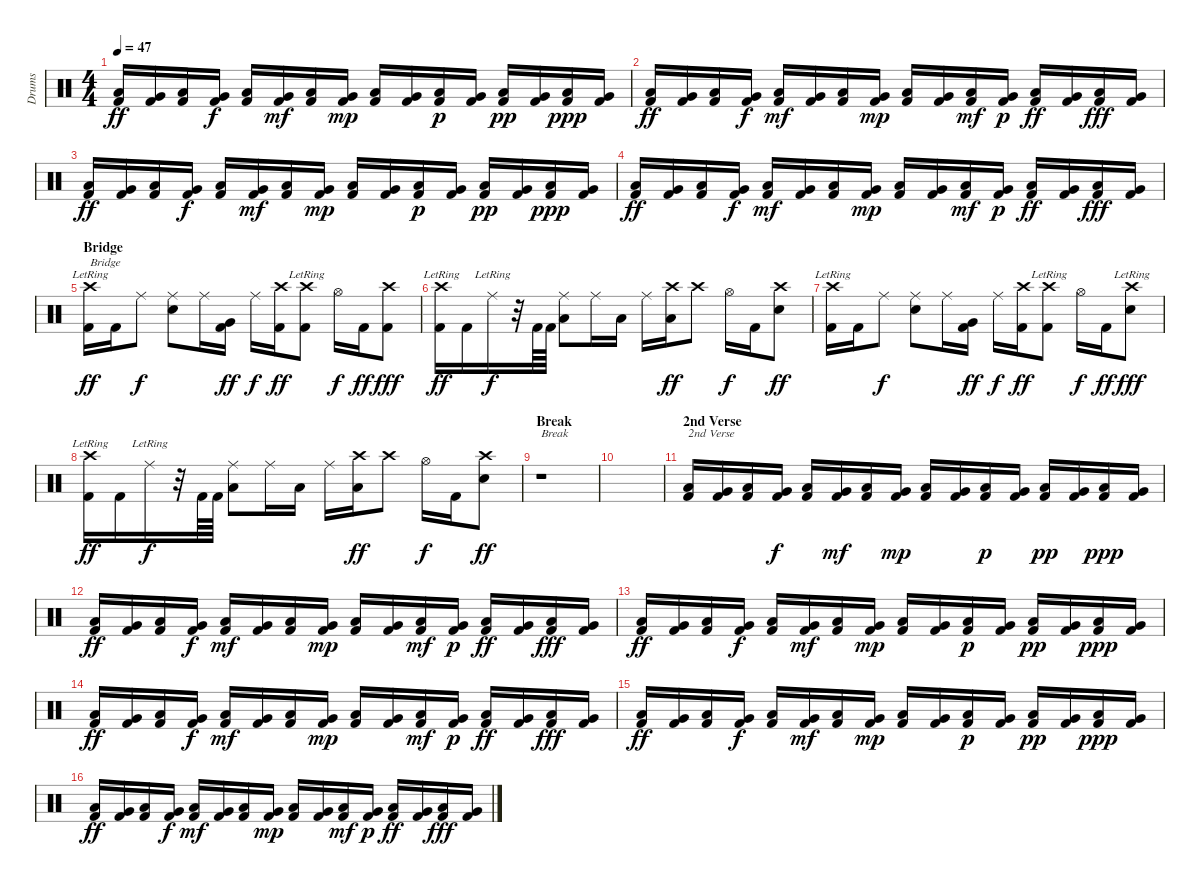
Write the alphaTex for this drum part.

\track ("Drums" "Drums") {instrument percussion}
\staff {score}
\articulation defaults
\ts (4 4)
\tempo 47
\clef neutral
\ks c
("Low Floor Tom (hit)" "Kick (hit) 2").16{dy ff} ("Very Low Tom (hit)" "Kick (hit) 2").16 ("Low Floor Tom (hit)" "Kick (hit) 2").16 ("Very Low Tom (hit)" "Kick (hit) 2").16{dy f} ("Low Floor Tom (hit)" "Kick (hit) 2").16 ("Very Low Tom (hit)" "Kick (hit) 2").16{dy mf} ("Low Floor Tom (hit)" "Kick (hit) 2").16 ("Very Low Tom (hit)" "Kick (hit) 2").16{dy mp} ("Low Floor Tom (hit)" "Kick (hit) 2").16 ("Very Low Tom (hit)" "Kick (hit) 2").16 ("Low Floor Tom (hit)" "Kick (hit) 2").16{dy p} ("Very Low Tom (hit)" "Kick (hit) 2").16 ("Low Floor Tom (hit)" "Kick (hit) 2").16{dy pp} ("Very Low Tom (hit)" "Kick (hit) 2").16 ("Low Floor Tom (hit)" "Kick (hit) 2").16{dy ppp} ("Very Low Tom (hit)" "Kick (hit) 2").16 |
("Low Floor Tom (hit)" "Kick (hit) 2").16{dy ff} ("Very Low Tom (hit)" "Kick (hit) 2").16 ("Low Floor Tom (hit)" "Kick (hit) 2").16 ("Very Low Tom (hit)" "Kick (hit) 2").16{dy f} ("Low Floor Tom (hit)" "Kick (hit) 2").16{dy mf} ("Very Low Tom (hit)" "Kick (hit) 2").16 ("Low Floor Tom (hit)" "Kick (hit) 2").16 ("Very Low Tom (hit)" "Kick (hit) 2").16{dy mp} ("Low Floor Tom (hit)" "Kick (hit) 2").16 ("Very Low Tom (hit)" "Kick (hit) 2").16 ("Low Floor Tom (hit)" "Kick (hit) 2").16{dy mf} ("Very Low Tom (hit)" "Kick (hit) 2").16{dy p} ("Low Floor Tom (hit)" "Kick (hit) 2").16{dy ff} ("Very Low Tom (hit)" "Kick (hit) 2").16 ("Low Floor Tom (hit)" "Kick (hit) 2").16{dy fff} ("Very Low Tom (hit)" "Kick (hit) 2").16 |
("Low Floor Tom (hit)" "Kick (hit) 2").16{dy ff} ("Very Low Tom (hit)" "Kick (hit) 2").16 ("Low Floor Tom (hit)" "Kick (hit) 2").16 ("Very Low Tom (hit)" "Kick (hit) 2").16{dy f} ("Low Floor Tom (hit)" "Kick (hit) 2").16 ("Very Low Tom (hit)" "Kick (hit) 2").16{dy mf} ("Low Floor Tom (hit)" "Kick (hit) 2").16 ("Very Low Tom (hit)" "Kick (hit) 2").16{dy mp} ("Low Floor Tom (hit)" "Kick (hit) 2").16 ("Very Low Tom (hit)" "Kick (hit) 2").16 ("Low Floor Tom (hit)" "Kick (hit) 2").16{dy p} ("Very Low Tom (hit)" "Kick (hit) 2").16 ("Low Floor Tom (hit)" "Kick (hit) 2").16{dy pp} ("Very Low Tom (hit)" "Kick (hit) 2").16 ("Low Floor Tom (hit)" "Kick (hit) 2").16{dy ppp} ("Very Low Tom (hit)" "Kick (hit) 2").16 |
("Low Floor Tom (hit)" "Kick (hit) 2").16{dy ff} ("Very Low Tom (hit)" "Kick (hit) 2").16 ("Low Floor Tom (hit)" "Kick (hit) 2").16 ("Very Low Tom (hit)" "Kick (hit) 2").16{dy f} ("Low Floor Tom (hit)" "Kick (hit) 2").16{dy mf} ("Very Low Tom (hit)" "Kick (hit) 2").16 ("Low Floor Tom (hit)" "Kick (hit) 2").16 ("Very Low Tom (hit)" "Kick (hit) 2").16{dy mp} ("Low Floor Tom (hit)" "Kick (hit) 2").16 ("Very Low Tom (hit)" "Kick (hit) 2").16 ("Low Floor Tom (hit)" "Kick (hit) 2").16{dy mf} ("Very Low Tom (hit)" "Kick (hit) 2").16{dy p} ("Low Floor Tom (hit)" "Kick (hit) 2").16{dy ff} ("Very Low Tom (hit)" "Kick (hit) 2").16 ("Low Floor Tom (hit)" "Kick (hit) 2").16{dy fff} ("Very Low Tom (hit)" "Kick (hit) 2").16 |
\section ("" "Bridge")
("Crash high (hit)"{lr} "Kick (hit) 2").16{txt "Bridge" dy ff} "Kick (hit) 2".16 "Ride (middle)".8{dy f} ("Ride (middle)" "Snare (hit) 2").8 "Ride (middle)".16 ("Very Low Tom (hit)" "Kick (hit) 2").16{dy ff} "Ride (middle)".16{dy f} ("Crash high (hit)" "Kick (hit) 2").16{dy ff} ("Crash high (hit)"{lr} "Kick (hit) 2").8 "Hi-Hat (open)".16{dy f} "Kick (hit) 2".16{dy ff} ("Crash high (hit)" "Kick (hit) 2").8{dy fff} |
("Crash high (hit)"{lr} "Kick (hit) 2").16{dy ff} "Kick (hit) 2".16 "Ride (middle)"{lr}.16{dy f} r.32 "Kick (hit) 2".64 "Kick (hit) 2".64 ("Ride (middle)" "Low Tom (hit)").8 "Ride (middle)".16 "Low Tom (hit)".16 "Ride (middle)".16 ("Crash high (hit)" "Low Tom (hit)").16{dy ff} "Crash high (hit)".8 "Hi-Hat (open)".16{dy f} "Kick (hit) 2".16 ("Crash high (hit)" "Snare (hit) 2").8{dy ff} |
("Crash high (hit)"{lr} "Kick (hit) 2").16 "Kick (hit) 2".16 "Ride (middle)".8{dy f} ("Ride (middle)" "Snare (hit) 2").8 "Ride (middle)".16 ("Very Low Tom (hit)" "Kick (hit) 2").16{dy ff} "Ride (middle)".16{dy f} ("Crash high (hit)" "Kick (hit) 2").16{dy ff} ("Crash high (hit)"{lr} "Kick (hit) 2").8 "Hi-Hat (open)".16{dy f} "Kick (hit) 2".16{dy ff} ("Crash high (hit)"{lr} "Snare (hit) 2").8{dy fff} |
("Crash high (hit)"{lr} "Kick (hit) 2").16{dy ff} "Kick (hit) 2".16 "Ride (middle)"{lr}.16{dy f} r.32 "Kick (hit) 2".64 "Kick (hit) 2".64 ("Ride (middle)" "Low Tom (hit)").8 "Ride (middle)".16 "Low Tom (hit)".16 "Ride (middle)".16 ("Crash high (hit)" "Low Tom (hit)").16{dy ff} "Crash high (hit)".8 "Hi-Hat (open)".16{dy f} "Kick (hit) 2".16 ("Crash high (hit)" "Snare (hit) 2").8{dy ff} |
\section ("" "Break")
r.1{txt "Break"} |
|
\section ("" "2nd Verse")
("Low Floor Tom (hit)" "Kick (hit) 2").16{txt "2nd Verse"} ("Very Low Tom (hit)" "Kick (hit) 2").16 ("Low Floor Tom (hit)" "Kick (hit) 2").16 ("Very Low Tom (hit)" "Kick (hit) 2").16{dy f} ("Low Floor Tom (hit)" "Kick (hit) 2").16 ("Very Low Tom (hit)" "Kick (hit) 2").16{dy mf} ("Low Floor Tom (hit)" "Kick (hit) 2").16 ("Very Low Tom (hit)" "Kick (hit) 2").16{dy mp} ("Low Floor Tom (hit)" "Kick (hit) 2").16 ("Very Low Tom (hit)" "Kick (hit) 2").16 ("Low Floor Tom (hit)" "Kick (hit) 2").16{dy p} ("Very Low Tom (hit)" "Kick (hit) 2").16 ("Low Floor Tom (hit)" "Kick (hit) 2").16{dy pp} ("Very Low Tom (hit)" "Kick (hit) 2").16 ("Low Floor Tom (hit)" "Kick (hit) 2").16{dy ppp} ("Very Low Tom (hit)" "Kick (hit) 2").16 |
("Low Floor Tom (hit)" "Kick (hit) 2").16{dy ff} ("Very Low Tom (hit)" "Kick (hit) 2").16 ("Low Floor Tom (hit)" "Kick (hit) 2").16 ("Very Low Tom (hit)" "Kick (hit) 2").16{dy f} ("Low Floor Tom (hit)" "Kick (hit) 2").16{dy mf} ("Very Low Tom (hit)" "Kick (hit) 2").16 ("Low Floor Tom (hit)" "Kick (hit) 2").16 ("Very Low Tom (hit)" "Kick (hit) 2").16{dy mp} ("Low Floor Tom (hit)" "Kick (hit) 2").16 ("Very Low Tom (hit)" "Kick (hit) 2").16 ("Low Floor Tom (hit)" "Kick (hit) 2").16{dy mf} ("Very Low Tom (hit)" "Kick (hit) 2").16{dy p} ("Low Floor Tom (hit)" "Kick (hit) 2").16{dy ff} ("Very Low Tom (hit)" "Kick (hit) 2").16 ("Low Floor Tom (hit)" "Kick (hit) 2").16{dy fff} ("Very Low Tom (hit)" "Kick (hit) 2").16 |
("Low Floor Tom (hit)" "Kick (hit) 2").16{dy ff} ("Very Low Tom (hit)" "Kick (hit) 2").16 ("Low Floor Tom (hit)" "Kick (hit) 2").16 ("Very Low Tom (hit)" "Kick (hit) 2").16{dy f} ("Low Floor Tom (hit)" "Kick (hit) 2").16 ("Very Low Tom (hit)" "Kick (hit) 2").16{dy mf} ("Low Floor Tom (hit)" "Kick (hit) 2").16 ("Very Low Tom (hit)" "Kick (hit) 2").16{dy mp} ("Low Floor Tom (hit)" "Kick (hit) 2").16 ("Very Low Tom (hit)" "Kick (hit) 2").16 ("Low Floor Tom (hit)" "Kick (hit) 2").16{dy p} ("Very Low Tom (hit)" "Kick (hit) 2").16 ("Low Floor Tom (hit)" "Kick (hit) 2").16{dy pp} ("Very Low Tom (hit)" "Kick (hit) 2").16 ("Low Floor Tom (hit)" "Kick (hit) 2").16{dy ppp} ("Very Low Tom (hit)" "Kick (hit) 2").16 |
("Low Floor Tom (hit)" "Kick (hit) 2").16{dy ff} ("Very Low Tom (hit)" "Kick (hit) 2").16 ("Low Floor Tom (hit)" "Kick (hit) 2").16 ("Very Low Tom (hit)" "Kick (hit) 2").16{dy f} ("Low Floor Tom (hit)" "Kick (hit) 2").16{dy mf} ("Very Low Tom (hit)" "Kick (hit) 2").16 ("Low Floor Tom (hit)" "Kick (hit) 2").16 ("Very Low Tom (hit)" "Kick (hit) 2").16{dy mp} ("Low Floor Tom (hit)" "Kick (hit) 2").16 ("Very Low Tom (hit)" "Kick (hit) 2").16 ("Low Floor Tom (hit)" "Kick (hit) 2").16{dy mf} ("Very Low Tom (hit)" "Kick (hit) 2").16{dy p} ("Low Floor Tom (hit)" "Kick (hit) 2").16{dy ff} ("Very Low Tom (hit)" "Kick (hit) 2").16 ("Low Floor Tom (hit)" "Kick (hit) 2").16{dy fff} ("Very Low Tom (hit)" "Kick (hit) 2").16 |
("Low Floor Tom (hit)" "Kick (hit) 2").16{dy ff} ("Very Low Tom (hit)" "Kick (hit) 2").16 ("Low Floor Tom (hit)" "Kick (hit) 2").16 ("Very Low Tom (hit)" "Kick (hit) 2").16{dy f} ("Low Floor Tom (hit)" "Kick (hit) 2").16 ("Very Low Tom (hit)" "Kick (hit) 2").16{dy mf} ("Low Floor Tom (hit)" "Kick (hit) 2").16 ("Very Low Tom (hit)" "Kick (hit) 2").16{dy mp} ("Low Floor Tom (hit)" "Kick (hit) 2").16 ("Very Low Tom (hit)" "Kick (hit) 2").16 ("Low Floor Tom (hit)" "Kick (hit) 2").16{dy p} ("Very Low Tom (hit)" "Kick (hit) 2").16 ("Low Floor Tom (hit)" "Kick (hit) 2").16{dy pp} ("Very Low Tom (hit)" "Kick (hit) 2").16 ("Low Floor Tom (hit)" "Kick (hit) 2").16{dy ppp} ("Very Low Tom (hit)" "Kick (hit) 2").16 |
("Low Floor Tom (hit)" "Kick (hit) 2").16{dy ff} ("Very Low Tom (hit)" "Kick (hit) 2").16 ("Low Floor Tom (hit)" "Kick (hit) 2").16 ("Very Low Tom (hit)" "Kick (hit) 2").16{dy f} ("Low Floor Tom (hit)" "Kick (hit) 2").16{dy mf} ("Very Low Tom (hit)" "Kick (hit) 2").16 ("Low Floor Tom (hit)" "Kick (hit) 2").16 ("Very Low Tom (hit)" "Kick (hit) 2").16{dy mp} ("Low Floor Tom (hit)" "Kick (hit) 2").16 ("Very Low Tom (hit)" "Kick (hit) 2").16 ("Low Floor Tom (hit)" "Kick (hit) 2").16{dy mf} ("Very Low Tom (hit)" "Kick (hit) 2").16{dy p} ("Low Floor Tom (hit)" "Kick (hit) 2").16{dy ff} ("Very Low Tom (hit)" "Kick (hit) 2").16 ("Low Floor Tom (hit)" "Kick (hit) 2").16{dy fff} ("Very Low Tom (hit)" "Kick (hit) 2").16
